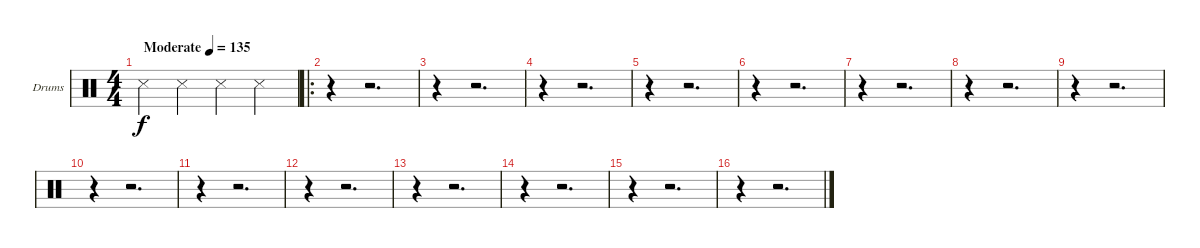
\bracketExtendMode groupsimilarinstruments
\firstSystemTrackNameOrientation horizontal
\otherSystemsTrackNameOrientation horizontal
\track ("Drumkit" "Drums") {instrument percussion}
\staff {score}
\articulation defaults
\ts (4 4)
\beaming (8 2 2 2 2)
\tempo (135 "Moderate")
\clef neutral
\ks c "Snare (side stick) 3".4{dy f} "Snare (side stick) 3".4 "Snare (side stick) 3".4 "Snare (side stick) 3".4
|
\ro
r.4 r.2{d} |
r.4 r.2{d} |
r.4 r.2{d} |
r.4 r.2{d} |
r.4 r.2{d} |
r.4 r.2{d} |
r.4 r.2{d} |
r.4 r.2{d} |
r.4 r.2{d} |
r.4 r.2{d} |
r.4 r.2{d} |
r.4 r.2{d} |
r.4 r.2{d} |
r.4 r.2{d} |
r.4 r.2{d}
